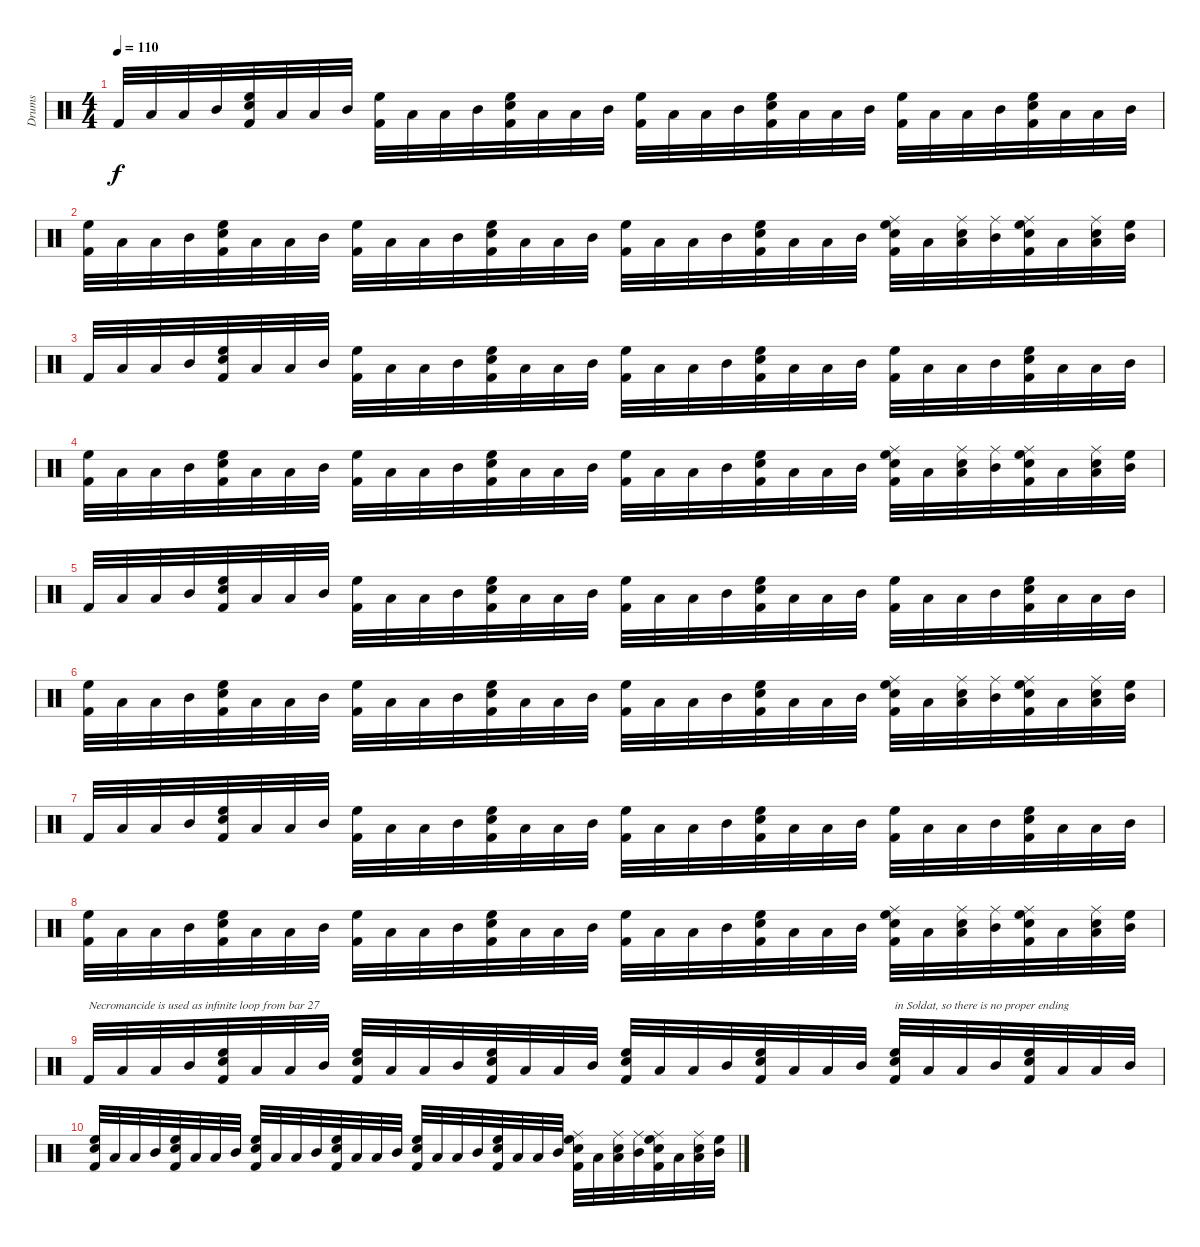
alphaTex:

\track ("Drums" "Drums") {instrument percussion}
\staff {score}
\articulation defaults
\ts (4 4)
\tempo 110
\clef neutral
\ks c "Kick (hit) 2".32{dy f} "Low Floor Tom (hit)".32 "Low Tom (hit)".32 "Mid Tom (hit)".32
("High Floor Tom (hit)" "Snare (hit) 2" "Kick (hit) 2").32 "Low Floor Tom (hit)".32 "Low Tom (hit)".32 "Mid Tom (hit)".32 ("High Floor Tom (hit)" "Kick (hit) 2").32 "Low Floor Tom (hit)".32 "Low Tom (hit)".32 "Mid Tom (hit)".32 ("High Floor Tom (hit)" "Snare (hit) 2" "Kick (hit) 2").32 "Low Floor Tom (hit)".32 "Low Tom (hit)".32 "Mid Tom (hit)".32 ("High Floor Tom (hit)" "Kick (hit) 2").32 "Low Floor Tom (hit)".32 "Low Tom (hit)".32 "Mid Tom (hit)".32 ("High Floor Tom (hit)" "Snare (hit) 2" "Kick (hit) 2").32 "Low Floor Tom (hit)".32 "Low Tom (hit)".32 "Mid Tom (hit)".32 ("High Floor Tom (hit)" "Kick (hit) 2").32 "Low Floor Tom (hit)".32 "Low Tom (hit)".32 "Mid Tom (hit)".32 ("High Floor Tom (hit)" "Snare (hit) 2" "Kick (hit) 2").32 "Low Floor Tom (hit)".32 "Low Tom (hit)".32 "Mid Tom (hit)".32 |
("High Floor Tom (hit)" "Kick (hit) 2").32 "Low Floor Tom (hit)".32 "Low Tom (hit)".32 "Mid Tom (hit)".32 ("High Floor Tom (hit)" "Snare (hit) 2" "Kick (hit) 2").32 "Low Floor Tom (hit)".32 "Low Tom (hit)".32 "Mid Tom (hit)".32 ("High Floor Tom (hit)" "Kick (hit) 2").32 "Low Floor Tom (hit)".32 "Low Tom (hit)".32 "Mid Tom (hit)".32 ("High Floor Tom (hit)" "Snare (hit) 2" "Kick (hit) 2").32 "Low Floor Tom (hit)".32 "Low Tom (hit)".32 "Mid Tom (hit)".32 ("High Floor Tom (hit)" "Kick (hit) 2").32 "Low Floor Tom (hit)".32 "Low Tom (hit)".32 "Mid Tom (hit)".32 ("High Floor Tom (hit)" "Snare (hit) 2" "Kick (hit) 2").32 "Low Floor Tom (hit)".32 "Low Tom (hit)".32 "Mid Tom (hit)".32 ("Ride (middle)" "High Floor Tom (hit)" "Snare (hit) 2" "Kick (hit) 2").32 "Low Floor Tom (hit)".32 ("Ride (middle)" "Snare (hit) 2" "Low Tom (hit)").32 ("Ride (middle)" "Mid Tom (hit)").32 ("Ride (middle)" "High Floor Tom (hit)" "Snare (hit) 2" "Kick (hit) 2").32 "Low Floor Tom (hit)".32 ("Ride (middle)" "Low Tom (hit)" "Snare (hit) 2").32 ("High Floor Tom (hit)" "Mid Tom (hit)").32 |
"Kick (hit) 2".32 "Low Floor Tom (hit)".32 "Low Tom (hit)".32 "Mid Tom (hit)".32 ("High Floor Tom (hit)" "Snare (hit) 2" "Kick (hit) 2").32 "Low Floor Tom (hit)".32 "Low Tom (hit)".32 "Mid Tom (hit)".32 ("High Floor Tom (hit)" "Kick (hit) 2").32 "Low Floor Tom (hit)".32 "Low Tom (hit)".32 "Mid Tom (hit)".32 ("High Floor Tom (hit)" "Snare (hit) 2" "Kick (hit) 2").32 "Low Floor Tom (hit)".32 "Low Tom (hit)".32 "Mid Tom (hit)".32 ("High Floor Tom (hit)" "Kick (hit) 2").32 "Low Floor Tom (hit)".32 "Low Tom (hit)".32 "Mid Tom (hit)".32 ("High Floor Tom (hit)" "Snare (hit) 2" "Kick (hit) 2").32 "Low Floor Tom (hit)".32 "Low Tom (hit)".32 "Mid Tom (hit)".32 ("High Floor Tom (hit)" "Kick (hit) 2").32 "Low Floor Tom (hit)".32 "Low Tom (hit)".32 "Mid Tom (hit)".32 ("High Floor Tom (hit)" "Snare (hit) 2" "Kick (hit) 2").32 "Low Floor Tom (hit)".32 "Low Tom (hit)".32 "Mid Tom (hit)".32 |
("High Floor Tom (hit)" "Kick (hit) 2").32 "Low Floor Tom (hit)".32 "Low Tom (hit)".32 "Mid Tom (hit)".32 ("High Floor Tom (hit)" "Snare (hit) 2" "Kick (hit) 2").32 "Low Floor Tom (hit)".32 "Low Tom (hit)".32 "Mid Tom (hit)".32 ("High Floor Tom (hit)" "Kick (hit) 2").32 "Low Floor Tom (hit)".32 "Low Tom (hit)".32 "Mid Tom (hit)".32 ("High Floor Tom (hit)" "Snare (hit) 2" "Kick (hit) 2").32 "Low Floor Tom (hit)".32 "Low Tom (hit)".32 "Mid Tom (hit)".32 ("High Floor Tom (hit)" "Kick (hit) 2").32 "Low Floor Tom (hit)".32 "Low Tom (hit)".32 "Mid Tom (hit)".32 ("High Floor Tom (hit)" "Snare (hit) 2" "Kick (hit) 2").32 "Low Floor Tom (hit)".32 "Low Tom (hit)".32 "Mid Tom (hit)".32 ("Ride (middle)" "High Floor Tom (hit)" "Snare (hit) 2" "Kick (hit) 2").32 "Low Floor Tom (hit)".32 ("Ride (middle)" "Snare (hit) 2" "Low Tom (hit)").32 ("Ride (middle)" "Mid Tom (hit)").32 ("Ride (middle)" "High Floor Tom (hit)" "Snare (hit) 2" "Kick (hit) 2").32 "Low Floor Tom (hit)".32 ("Ride (middle)" "Low Tom (hit)" "Snare (hit) 2").32 ("High Floor Tom (hit)" "Mid Tom (hit)").32 |
"Kick (hit) 2".32 "Low Floor Tom (hit)".32 "Low Tom (hit)".32 "Mid Tom (hit)".32 ("High Floor Tom (hit)" "Snare (hit) 2" "Kick (hit) 2").32 "Low Floor Tom (hit)".32 "Low Tom (hit)".32 "Mid Tom (hit)".32 ("High Floor Tom (hit)" "Kick (hit) 2").32 "Low Floor Tom (hit)".32 "Low Tom (hit)".32 "Mid Tom (hit)".32 ("High Floor Tom (hit)" "Snare (hit) 2" "Kick (hit) 2").32 "Low Floor Tom (hit)".32 "Low Tom (hit)".32 "Mid Tom (hit)".32 ("High Floor Tom (hit)" "Kick (hit) 2").32 "Low Floor Tom (hit)".32 "Low Tom (hit)".32 "Mid Tom (hit)".32 ("High Floor Tom (hit)" "Snare (hit) 2" "Kick (hit) 2").32 "Low Floor Tom (hit)".32 "Low Tom (hit)".32 "Mid Tom (hit)".32 ("High Floor Tom (hit)" "Kick (hit) 2").32 "Low Floor Tom (hit)".32 "Low Tom (hit)".32 "Mid Tom (hit)".32 ("High Floor Tom (hit)" "Snare (hit) 2" "Kick (hit) 2").32 "Low Floor Tom (hit)".32 "Low Tom (hit)".32 "Mid Tom (hit)".32 |
("High Floor Tom (hit)" "Kick (hit) 2").32 "Low Floor Tom (hit)".32 "Low Tom (hit)".32 "Mid Tom (hit)".32 ("High Floor Tom (hit)" "Snare (hit) 2" "Kick (hit) 2").32 "Low Floor Tom (hit)".32 "Low Tom (hit)".32 "Mid Tom (hit)".32 ("High Floor Tom (hit)" "Kick (hit) 2").32 "Low Floor Tom (hit)".32 "Low Tom (hit)".32 "Mid Tom (hit)".32 ("High Floor Tom (hit)" "Snare (hit) 2" "Kick (hit) 2").32 "Low Floor Tom (hit)".32 "Low Tom (hit)".32 "Mid Tom (hit)".32 ("High Floor Tom (hit)" "Kick (hit) 2").32 "Low Floor Tom (hit)".32 "Low Tom (hit)".32 "Mid Tom (hit)".32 ("High Floor Tom (hit)" "Snare (hit) 2" "Kick (hit) 2").32 "Low Floor Tom (hit)".32 "Low Tom (hit)".32 "Mid Tom (hit)".32 ("Ride (middle)" "High Floor Tom (hit)" "Snare (hit) 2" "Kick (hit) 2").32 "Low Floor Tom (hit)".32 ("Ride (middle)" "Snare (hit) 2" "Low Tom (hit)").32 ("Ride (middle)" "Mid Tom (hit)").32 ("Ride (middle)" "High Floor Tom (hit)" "Snare (hit) 2" "Kick (hit) 2").32 "Low Floor Tom (hit)".32 ("Ride (middle)" "Low Tom (hit)" "Snare (hit) 2").32 ("High Floor Tom (hit)" "Mid Tom (hit)").32 |
"Kick (hit) 2".32 "Low Floor Tom (hit)".32 "Low Tom (hit)".32 "Mid Tom (hit)".32 ("High Floor Tom (hit)" "Snare (hit) 2" "Kick (hit) 2").32 "Low Floor Tom (hit)".32 "Low Tom (hit)".32 "Mid Tom (hit)".32 ("High Floor Tom (hit)" "Kick (hit) 2").32 "Low Floor Tom (hit)".32 "Low Tom (hit)".32 "Mid Tom (hit)".32 ("High Floor Tom (hit)" "Snare (hit) 2" "Kick (hit) 2").32 "Low Floor Tom (hit)".32 "Low Tom (hit)".32 "Mid Tom (hit)".32 ("High Floor Tom (hit)" "Kick (hit) 2").32 "Low Floor Tom (hit)".32 "Low Tom (hit)".32 "Mid Tom (hit)".32 ("High Floor Tom (hit)" "Snare (hit) 2" "Kick (hit) 2").32 "Low Floor Tom (hit)".32 "Low Tom (hit)".32 "Mid Tom (hit)".32 ("High Floor Tom (hit)" "Kick (hit) 2").32 "Low Floor Tom (hit)".32 "Low Tom (hit)".32 "Mid Tom (hit)".32 ("High Floor Tom (hit)" "Snare (hit) 2" "Kick (hit) 2").32 "Low Floor Tom (hit)".32 "Low Tom (hit)".32 "Mid Tom (hit)".32 |
("High Floor Tom (hit)" "Kick (hit) 2").32 "Low Floor Tom (hit)".32 "Low Tom (hit)".32 "Mid Tom (hit)".32 ("High Floor Tom (hit)" "Snare (hit) 2" "Kick (hit) 2").32 "Low Floor Tom (hit)".32 "Low Tom (hit)".32 "Mid Tom (hit)".32 ("High Floor Tom (hit)" "Kick (hit) 2").32 "Low Floor Tom (hit)".32 "Low Tom (hit)".32 "Mid Tom (hit)".32 ("High Floor Tom (hit)" "Snare (hit) 2" "Kick (hit) 2").32 "Low Floor Tom (hit)".32 "Low Tom (hit)".32 "Mid Tom (hit)".32 ("High Floor Tom (hit)" "Kick (hit) 2").32 "Low Floor Tom (hit)".32 "Low Tom (hit)".32 "Mid Tom (hit)".32 ("High Floor Tom (hit)" "Snare (hit) 2" "Kick (hit) 2").32 "Low Floor Tom (hit)".32 "Low Tom (hit)".32 "Mid Tom (hit)".32 ("Ride (middle)" "High Floor Tom (hit)" "Snare (hit) 2" "Kick (hit) 2").32 "Low Floor Tom (hit)".32 ("Ride (middle)" "Snare (hit) 2" "Low Tom (hit)").32 ("Ride (middle)" "Mid Tom (hit)").32 ("Ride (middle)" "High Floor Tom (hit)" "Snare (hit) 2" "Kick (hit) 2").32 "Low Floor Tom (hit)".32 ("Ride (middle)" "Low Tom (hit)" "Snare (hit) 2").32 ("High Floor Tom (hit)" "Mid Tom (hit)").32 |
"Kick (hit) 2".32{txt "Necromancide is used as infinite loop from bar 27"} "Low Floor Tom (hit)".32 "Low Tom (hit)".32 "Mid Tom (hit)".32 ("High Floor Tom (hit)" "Snare (hit) 2" "Kick (hit) 2").32 "Low Floor Tom (hit)".32 "Low Tom (hit)".32 "Mid Tom (hit)".32 ("High Floor Tom (hit)" "Snare (hit) 2" "Kick (hit) 2").32 "Low Floor Tom (hit)".32 "Low Tom (hit)".32 "Mid Tom (hit)".32 ("High Floor Tom (hit)" "Snare (hit) 2" "Kick (hit) 2").32 "Low Floor Tom (hit)".32 "Low Tom (hit)".32 "Mid Tom (hit)".32 ("High Floor Tom (hit)" "Snare (hit) 2" "Kick (hit) 2").32 "Low Floor Tom (hit)".32 "Low Tom (hit)".32 "Mid Tom (hit)".32 ("High Floor Tom (hit)" "Snare (hit) 2" "Kick (hit) 2").32 "Low Floor Tom (hit)".32 "Low Tom (hit)".32 "Mid Tom (hit)".32 ("High Floor Tom (hit)" "Snare (hit) 2" "Kick (hit) 2").32{txt "in Soldat, so there is no proper ending"} "Low Floor Tom (hit)".32 "Low Tom (hit)".32 "Mid Tom (hit)".32 ("High Floor Tom (hit)" "Snare (hit) 2" "Kick (hit) 2").32 "Low Floor Tom (hit)".32 "Low Tom (hit)".32 "Mid Tom (hit)".32 |
("High Floor Tom (hit)" "Snare (hit) 2" "Kick (hit) 2").32 "Low Floor Tom (hit)".32 "Low Tom (hit)".32 "Mid Tom (hit)".32 ("High Floor Tom (hit)" "Snare (hit) 2" "Kick (hit) 2").32 "Low Floor Tom (hit)".32 "Low Tom (hit)".32 "Mid Tom (hit)".32 ("High Floor Tom (hit)" "Snare (hit) 2" "Kick (hit) 2").32 "Low Floor Tom (hit)".32 "Low Tom (hit)".32 "Mid Tom (hit)".32 ("High Floor Tom (hit)" "Snare (hit) 2" "Kick (hit) 2").32 "Low Floor Tom (hit)".32 "Low Tom (hit)".32 "Mid Tom (hit)".32 ("High Floor Tom (hit)" "Snare (hit) 2" "Kick (hit) 2").32 "Low Floor Tom (hit)".32 "Low Tom (hit)".32 "Mid Tom (hit)".32 ("High Floor Tom (hit)" "Snare (hit) 2" "Kick (hit) 2").32 "Low Floor Tom (hit)".32 "Low Tom (hit)".32 "Mid Tom (hit)".32 ("Ride (middle)" "High Floor Tom (hit)" "Snare (hit) 2" "Kick (hit) 2").32 "Low Floor Tom (hit)".32 ("Ride (middle)" "Snare (hit) 2" "Low Tom (hit)").32 ("Ride (middle)" "Mid Tom (hit)").32 ("Ride (middle)" "High Floor Tom (hit)" "Snare (hit) 2" "Kick (hit) 2").32 "Low Floor Tom (hit)".32 ("Ride (middle)" "Low Tom (hit)" "Snare (hit) 2").32 ("High Floor Tom (hit)" "Mid Tom (hit)").32
